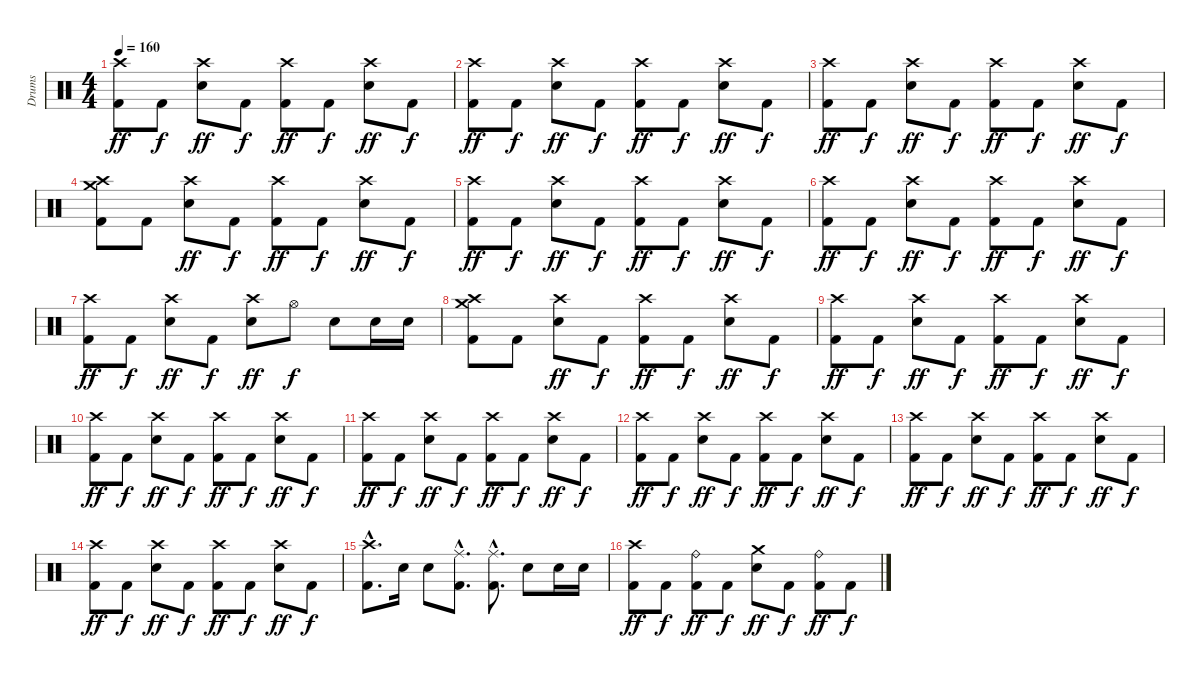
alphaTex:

\track ("Drums" "Drums") {instrument percussion}
\staff {score}
\articulation defaults
\ts (4 4)
\tempo 160
\clef neutral
\ks c
("Crash high (hit)" "Kick (hit) 2").8{dy ff} "Kick (hit) 2".8{dy f} ("Crash high (hit)" "Snare (hit) 2").8{dy ff} "Kick (hit) 2".8{dy f} ("Crash high (hit)" "Kick (hit) 2").8{dy ff} "Kick (hit) 2".8{dy f} ("Crash high (hit)" "Snare (hit) 2").8{dy ff} "Kick (hit) 2".8{dy f} |
("Crash high (hit)" "Kick (hit) 2").8{dy ff} "Kick (hit) 2".8{dy f} ("Crash high (hit)" "Snare (hit) 2").8{dy ff} "Kick (hit) 2".8{dy f} ("Crash high (hit)" "Kick (hit) 2").8{dy ff} "Kick (hit) 2".8{dy f} ("Crash high (hit)" "Snare (hit) 2").8{dy ff} "Kick (hit) 2".8{dy f} |
("Crash high (hit)" "Kick (hit) 2").8{dy ff} "Kick (hit) 2".8{dy f} ("Crash high (hit)" "Snare (hit) 2").8{dy ff} "Kick (hit) 2".8{dy f} ("Crash high (hit)" "Kick (hit) 2").8{dy ff} "Kick (hit) 2".8{dy f} ("Crash high (hit)" "Snare (hit) 2").8{dy ff} "Kick (hit) 2".8{dy f} |
("Crash high (hit)" "Crash medium (hit)" "Kick (hit) 2").8 "Kick (hit) 2".8 ("Crash high (hit)" "Snare (hit) 2").8{dy ff} "Kick (hit) 2".8{dy f} ("Crash high (hit)" "Kick (hit) 2").8{dy ff} "Kick (hit) 2".8{dy f} ("Crash high (hit)" "Snare (hit) 2").8{dy ff} "Kick (hit) 2".8{dy f} |
("Crash high (hit)" "Kick (hit) 2").8{dy ff} "Kick (hit) 2".8{dy f} ("Crash high (hit)" "Snare (hit) 2").8{dy ff} "Kick (hit) 2".8{dy f} ("Crash high (hit)" "Kick (hit) 2").8{dy ff} "Kick (hit) 2".8{dy f} ("Crash high (hit)" "Snare (hit) 2").8{dy ff} "Kick (hit) 2".8{dy f} |
("Crash high (hit)" "Kick (hit) 2").8{dy ff} "Kick (hit) 2".8{dy f} ("Crash high (hit)" "Snare (hit) 2").8{dy ff} "Kick (hit) 2".8{dy f} ("Crash high (hit)" "Kick (hit) 2").8{dy ff} "Kick (hit) 2".8{dy f} ("Crash high (hit)" "Snare (hit) 2").8{dy ff} "Kick (hit) 2".8{dy f} |
("Crash high (hit)" "Kick (hit) 2").8{dy ff} "Kick (hit) 2".8{dy f} ("Crash high (hit)" "Snare (hit) 2").8{dy ff} "Kick (hit) 2".8{dy f} ("Crash high (hit)" "Snare (hit) 2").8{dy ff} "Hi-Hat (open)".8{dy f} "Snare (hit) 2".8 "Snare (hit) 2".16 "Snare (hit) 2".16 |
("Crash high (hit)" "Crash medium (hit)" "Kick (hit) 2").8 "Kick (hit) 2".8 ("Crash high (hit)" "Snare (hit) 2").8{dy ff} "Kick (hit) 2".8{dy f} ("Crash high (hit)" "Kick (hit) 2").8{dy ff} "Kick (hit) 2".8{dy f} ("Crash high (hit)" "Snare (hit) 2").8{dy ff} "Kick (hit) 2".8{dy f} |
("Crash high (hit)" "Kick (hit) 2").8{dy ff} "Kick (hit) 2".8{dy f} ("Crash high (hit)" "Snare (hit) 2").8{dy ff} "Kick (hit) 2".8{dy f} ("Crash high (hit)" "Kick (hit) 2").8{dy ff} "Kick (hit) 2".8{dy f} ("Crash high (hit)" "Snare (hit) 2").8{dy ff} "Kick (hit) 2".8{dy f} |
("Crash high (hit)" "Kick (hit) 2").8{dy ff} "Kick (hit) 2".8{dy f} ("Crash high (hit)" "Snare (hit) 2").8{dy ff} "Kick (hit) 2".8{dy f} ("Crash high (hit)" "Kick (hit) 2").8{dy ff} "Kick (hit) 2".8{dy f} ("Crash high (hit)" "Snare (hit) 2").8{dy ff} "Kick (hit) 2".8{dy f} |
("Crash high (hit)" "Kick (hit) 2").8{dy ff} "Kick (hit) 2".8{dy f} ("Crash high (hit)" "Snare (hit) 2").8{dy ff} "Kick (hit) 2".8{dy f} ("Crash high (hit)" "Kick (hit) 2").8{dy ff} "Kick (hit) 2".8{dy f} ("Crash high (hit)" "Snare (hit) 2").8{dy ff} "Kick (hit) 2".8{dy f} |
("Crash high (hit)" "Kick (hit) 2").8{dy ff} "Kick (hit) 2".8{dy f} ("Crash high (hit)" "Snare (hit) 2").8{dy ff} "Kick (hit) 2".8{dy f} ("Crash high (hit)" "Kick (hit) 2").8{dy ff} "Kick (hit) 2".8{dy f} ("Crash high (hit)" "Snare (hit) 2").8{dy ff} "Kick (hit) 2".8{dy f} |
("Crash high (hit)" "Kick (hit) 2").8{dy ff} "Kick (hit) 2".8{dy f} ("Crash high (hit)" "Snare (hit) 2").8{dy ff} "Kick (hit) 2".8{dy f} ("Crash high (hit)" "Kick (hit) 2").8{dy ff} "Kick (hit) 2".8{dy f} ("Crash high (hit)" "Snare (hit) 2").8{dy ff} "Kick (hit) 2".8{dy f} |
("Crash high (hit)" "Kick (hit) 2").8{dy ff} "Kick (hit) 2".8{dy f} ("Crash high (hit)" "Snare (hit) 2").8{dy ff} "Kick (hit) 2".8{dy f} ("Crash high (hit)" "Kick (hit) 2").8{dy ff} "Kick (hit) 2".8{dy f} ("Crash high (hit)" "Snare (hit) 2").8{dy ff} "Kick (hit) 2".8{dy f} |
("Crash high (hit)"{hac} "Kick (hit) 2"{hac}).8{d} "Snare (hit) 2".16 "Snare (hit) 2".8 ("Ride (middle)"{hac} "Kick (hit) 2"{hac}).8{d} ("Ride (middle)"{hac} "Kick (hit) 2"{hac}).8{d} "Snare (hit) 2".8 "Snare (hit) 2".16 "Snare (hit) 2".16 |
("Crash high (hit)" "Kick (hit) 2").8{dy ff} "Kick (hit) 2".8{dy f} ("Ride (bell)" "Kick (hit) 2").8{dy ff} "Kick (hit) 2".8{dy f} ("Crash medium (hit)" "Snare (hit) 2").8{dy ff} "Kick (hit) 2".8{dy f} ("Ride (bell)" "Kick (hit) 2").8{dy ff} "Kick (hit) 2".8{dy f}
